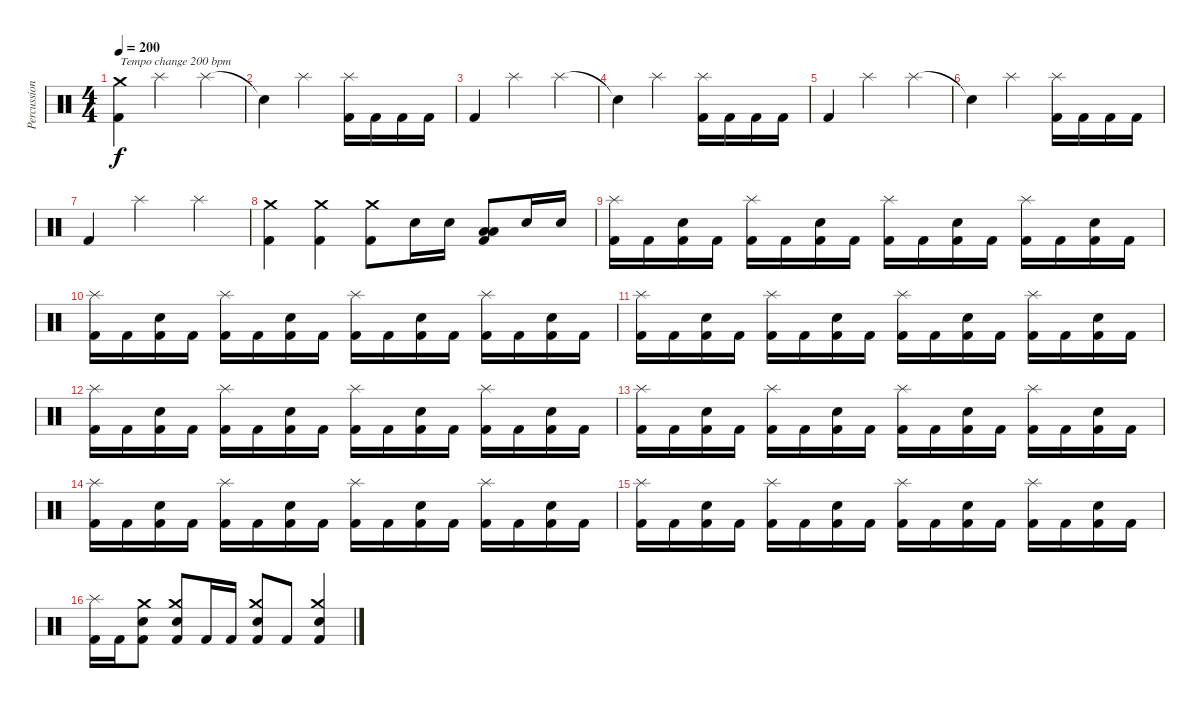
\track ("Percussion" "Percussion") {instrument percussion}
\staff {score}
\articulation defaults
\ts (4 4)
\tempo 200
\clef neutral
\ks c
("Kick (hit) 2" "Crash medium (hit)").4{txt "Tempo change 200 bpm" dy f} "Splash (hit)".2 "Splash (hit)".4 |
"Snare (hit)"{t}.4 "Splash (hit)".2 ("Kick (hit) 2" "Splash (hit)").16 "Kick (hit) 2".16 "Kick (hit) 2".16 "Kick (hit) 2".16 |
"Kick (hit) 2".4 "Splash (hit)".2 "Splash (hit)".4 |
"Snare (hit)"{t}.4 "Splash (hit)".2 ("Kick (hit) 2" "Splash (hit)").16 "Kick (hit) 2".16 "Kick (hit) 2".16 "Kick (hit) 2".16 |
"Kick (hit) 2".4 "Splash (hit)".2 "Splash (hit)".4 |
"Snare (hit)"{t}.4 "Splash (hit)".2 ("Kick (hit) 2" "Splash (hit)").16 "Kick (hit) 2".16 "Kick (hit) 2".16 "Kick (hit) 2".16 |
"Kick (hit) 2".4 "Splash (hit)".2 "Splash (hit)".4 |
("Kick (hit) 2" "Crash medium (hit)").4 ("Kick (hit) 2" "Crash medium (hit)").4 ("Kick (hit) 2" "Crash medium (hit)").8 "Snare (hit) 2".16 "Snare (hit) 2".16 ("Kick (hit) 2" "Low Tom (hit)" "Low Tom (hit)").8 "Snare (hit) 2".16 "Snare (hit) 2".16 |
("Kick (hit) 2" "Splash (hit)").16 "Kick (hit) 2".16 ("Kick (hit) 2" "Snare (hit) 2").16 "Kick (hit) 2".16 ("Kick (hit) 2" "Splash (hit)").16 "Kick (hit) 2".16 ("Kick (hit) 2" "Snare (hit) 2").16 "Kick (hit) 2".16 ("Kick (hit) 2" "Splash (hit)").16 "Kick (hit) 2".16 ("Kick (hit) 2" "Snare (hit) 2").16 "Kick (hit) 2".16 ("Kick (hit) 2" "Splash (hit)").16 "Kick (hit) 2".16 ("Kick (hit) 2" "Snare (hit) 2").16 "Kick (hit) 2".16 |
("Kick (hit) 2" "Splash (hit)").16 "Kick (hit) 2".16 ("Kick (hit) 2" "Snare (hit) 2").16 "Kick (hit) 2".16 ("Kick (hit) 2" "Splash (hit)").16 "Kick (hit) 2".16 ("Kick (hit) 2" "Snare (hit) 2").16 "Kick (hit) 2".16 ("Kick (hit) 2" "Splash (hit)").16 "Kick (hit) 2".16 ("Kick (hit) 2" "Snare (hit) 2").16 "Kick (hit) 2".16 ("Kick (hit) 2" "Splash (hit)").16 "Kick (hit) 2".16 ("Kick (hit) 2" "Snare (hit) 2").16 "Kick (hit) 2".16 |
("Kick (hit) 2" "Splash (hit)").16 "Kick (hit) 2".16 ("Kick (hit) 2" "Snare (hit) 2").16 "Kick (hit) 2".16 ("Kick (hit) 2" "Splash (hit)").16 "Kick (hit) 2".16 ("Kick (hit) 2" "Snare (hit) 2").16 "Kick (hit) 2".16 ("Kick (hit) 2" "Splash (hit)").16 "Kick (hit) 2".16 ("Kick (hit) 2" "Snare (hit) 2").16 "Kick (hit) 2".16 ("Kick (hit) 2" "Splash (hit)").16 "Kick (hit) 2".16 ("Kick (hit) 2" "Snare (hit) 2").16 "Kick (hit) 2".16 |
("Kick (hit) 2" "Splash (hit)").16 "Kick (hit) 2".16 ("Kick (hit) 2" "Snare (hit) 2").16 "Kick (hit) 2".16 ("Kick (hit) 2" "Splash (hit)").16 "Kick (hit) 2".16 ("Kick (hit) 2" "Snare (hit) 2").16 "Kick (hit) 2".16 ("Kick (hit) 2" "Splash (hit)").16 "Kick (hit) 2".16 ("Kick (hit) 2" "Snare (hit) 2").16 "Kick (hit) 2".16 ("Kick (hit) 2" "Splash (hit)").16 "Kick (hit) 2".16 ("Kick (hit) 2" "Snare (hit) 2").16 "Kick (hit) 2".16 |
("Kick (hit) 2" "Splash (hit)").16 "Kick (hit) 2".16 ("Kick (hit) 2" "Snare (hit) 2").16 "Kick (hit) 2".16 ("Kick (hit) 2" "Splash (hit)").16 "Kick (hit) 2".16 ("Kick (hit) 2" "Snare (hit) 2").16 "Kick (hit) 2".16 ("Kick (hit) 2" "Splash (hit)").16 "Kick (hit) 2".16 ("Kick (hit) 2" "Snare (hit) 2").16 "Kick (hit) 2".16 ("Kick (hit) 2" "Splash (hit)").16 "Kick (hit) 2".16 ("Kick (hit) 2" "Snare (hit) 2").16 "Kick (hit) 2".16 |
("Kick (hit) 2" "Splash (hit)").16 "Kick (hit) 2".16 ("Kick (hit) 2" "Snare (hit) 2").16 "Kick (hit) 2".16 ("Kick (hit) 2" "Splash (hit)").16 "Kick (hit) 2".16 ("Kick (hit) 2" "Snare (hit) 2").16 "Kick (hit) 2".16 ("Kick (hit) 2" "Splash (hit)").16 "Kick (hit) 2".16 ("Kick (hit) 2" "Snare (hit) 2").16 "Kick (hit) 2".16 ("Kick (hit) 2" "Splash (hit)").16 "Kick (hit) 2".16 ("Kick (hit) 2" "Snare (hit) 2").16 "Kick (hit) 2".16 |
("Kick (hit) 2" "Splash (hit)").16 "Kick (hit) 2".16 ("Kick (hit) 2" "Snare (hit) 2").16 "Kick (hit) 2".16 ("Kick (hit) 2" "Splash (hit)").16 "Kick (hit) 2".16 ("Kick (hit) 2" "Snare (hit) 2").16 "Kick (hit) 2".16 ("Kick (hit) 2" "Splash (hit)").16 "Kick (hit) 2".16 ("Kick (hit) 2" "Snare (hit) 2").16 "Kick (hit) 2".16 ("Kick (hit) 2" "Splash (hit)").16 "Kick (hit) 2".16 ("Kick (hit) 2" "Snare (hit) 2").16 "Kick (hit) 2".16 |
("Kick (hit) 2" "Splash (hit)").16 "Kick (hit) 2".16 ("Kick (hit) 2" "Crash medium (hit)" "Snare (hit) 2").8 ("Kick (hit) 2" "Crash medium (hit)" "Snare (hit) 2").8 "Kick (hit) 2".16 "Kick (hit) 2".16 ("Kick (hit) 2" "Crash medium (hit)" "Snare (hit) 2").8 "Kick (hit) 2".8 ("Kick (hit) 2" "Crash medium (hit)" "Snare (hit) 2").4
